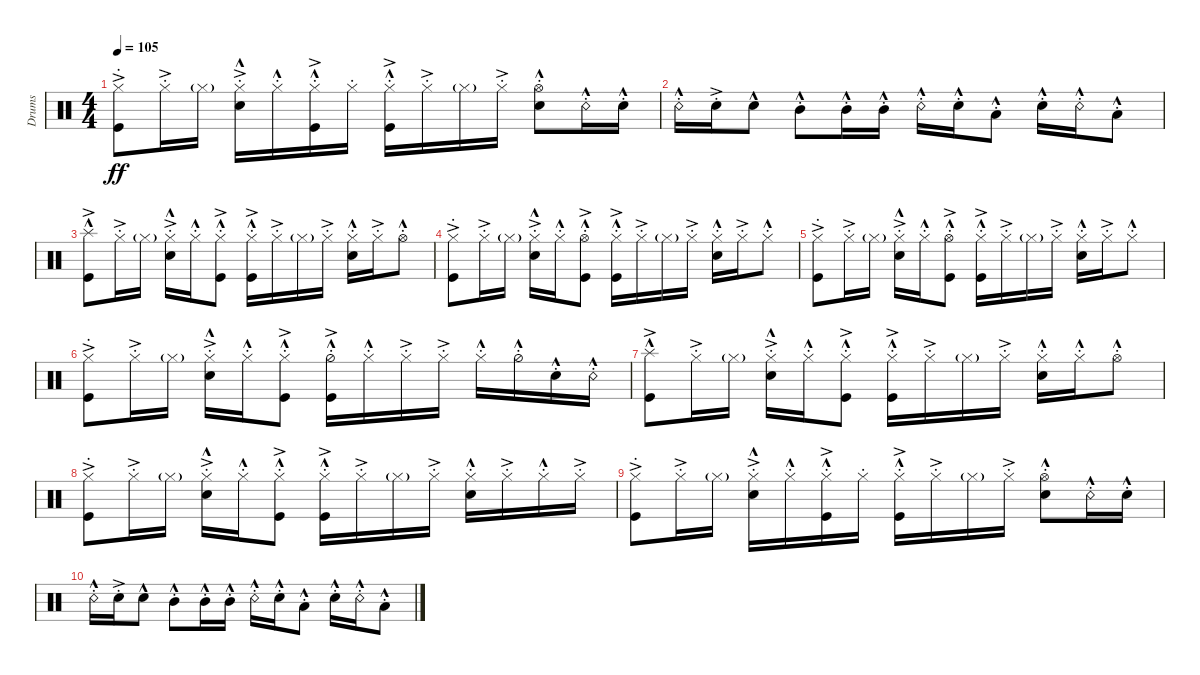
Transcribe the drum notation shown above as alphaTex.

\defaultSystemsLayout 4
\otherSystemsTrackNameOrientation horizontal
\chordDiagramsInScore
\track ("Drumkit" "Drums") {instrument percussion}
\staff {score}
\articulation defaults
\ts (4 4)
\tempo 105
\clef neutral
\scale
0.5
\ks c
("Kick (hit)"{ac} "Hi-Hat (closed)"{ac st}).8{dy ff} "Hi-Hat (closed)"{ac st}.16 "Hi-Hat (closed)"{g}.16 ("Hi-Hat (closed)"{ac st} "Snare (hit) 2"{hac st}).16 "Hi-Hat (closed)"{hac st}.16 ("Hi-Hat (closed)"{hac st} "Kick (hit)"{ac st}).16 "Hi-Hat (closed)"{st}.16 ("Hi-Hat (closed)"{hac st} "Kick (hit)"{ac st}).16 "Hi-Hat (closed)"{ac st}.16 "Hi-Hat (closed)"{g}.16 "Hi-Hat (closed)"{ac st}.16 ("Hi-Hat (open)"{hac st} "Snare (hit) 2"{hac st}).8 "Snare (rim shot)"{hac st}.16 "Snare (hit) 2"{hac st}.16 |
\scale
0.5 "Snare (rim shot)"{hac st}.16 "Snare (hit) 2"{ac st}.16 "Snare (hit) 2"{hac}.8 "Mid Tom (hit)"{hac st}.8 "Mid Tom (hit)"{hac st}.16 "Mid Tom (hit)"{hac st}.16 "Snare (rim shot)"{hac st}.16 "Snare (hit) 2"{hac st}.16 "Low Tom (hit)"{hac st}.8 "Snare (hit) 2"{hac st}.16 "Snare (rim shot)"{hac st}.16 "Low Tom (hit)"{hac st}.8 |
\scale
0.5 ("Splash (hit)"{hac} "Kick (hit)"{ac}).8 "Hi-Hat (closed)"{ac st}.16 "Hi-Hat (closed)"{g}.16 ("Hi-Hat (closed)"{ac st} "Snare (hit) 2"{hac st}).16 "Hi-Hat (closed)"{hac st}.16 ("Hi-Hat (closed)"{hac st} "Kick (hit)"{ac st}).8 ("Hi-Hat (closed)"{hac st} "Kick (hit)"{ac st}).16 "Hi-Hat (closed)"{ac st}.16 "Hi-Hat (closed)"{g}.16 "Hi-Hat (closed)"{ac st}.16 ("Hi-Hat (closed)"{hac st} "Snare (hit) 2"{hac st}).16 "Hi-Hat (closed)"{ac st}.16 "Hi-Hat (open)"{hac st}.8 |
\scale
0.5 ("Kick (hit)"{ac} "Hi-Hat (closed)"{ac st}).8 "Hi-Hat (closed)"{ac st}.16 "Hi-Hat (closed)"{g}.16 ("Hi-Hat (closed)"{ac st} "Snare (hit) 2"{hac st}).16 "Hi-Hat (closed)"{hac st}.16 ("Hi-Hat (open)"{hac st} "Kick (hit)"{ac st}).8 ("Hi-Hat (closed)"{hac st} "Kick (hit)"{ac st}).16 "Hi-Hat (closed)"{ac st}.16 "Hi-Hat (closed)"{g}.16 "Hi-Hat (closed)"{ac st}.16 ("Hi-Hat (closed)"{hac st} "Snare (hit) 2"{hac st}).16 "Hi-Hat (closed)"{ac st}.16 "Hi-Hat (closed)"{hac st}.8 |
\scale
0.5 ("Kick (hit)"{ac} "Hi-Hat (closed)"{ac st}).8 "Hi-Hat (closed)"{ac st}.16 "Hi-Hat (closed)"{g}.16 ("Hi-Hat (closed)"{ac st} "Snare (hit) 2"{hac st}).16 "Hi-Hat (closed)"{hac st}.16 ("Hi-Hat (open)"{hac st} "Kick (hit)"{ac st}).8 ("Hi-Hat (closed)"{hac st} "Kick (hit)"{ac st}).16 "Hi-Hat (closed)"{ac st}.16 "Hi-Hat (closed)"{g}.16 "Hi-Hat (closed)"{ac st}.16 ("Hi-Hat (closed)"{hac st} "Snare (hit) 2"{hac st}).16 "Hi-Hat (closed)"{ac st}.16 "Hi-Hat (closed)"{hac st}.8 |
\scale
0.5 ("Kick (hit)"{ac} "Hi-Hat (closed)"{ac st}).8 "Hi-Hat (closed)"{ac st}.16 "Hi-Hat (closed)"{g}.16 ("Hi-Hat (closed)"{ac st} "Snare (hit) 2"{hac st}).16 "Hi-Hat (closed)"{hac st}.16 ("Hi-Hat (closed)"{hac st} "Kick (hit)"{ac st}).8 ("Hi-Hat (half)"{hac st} "Kick (hit)"{ac st}).16 "Hi-Hat (closed)"{hac st}.16 "Hi-Hat (closed)"{ac st}.16 "Hi-Hat (closed)"{ac st}.16 "Hi-Hat (closed)"{hac st}.16 "Hi-Hat (half)"{hac st}.16 "Snare (hit) 2"{hac st}.16 "Snare (rim shot)"{hac st}.16 |
\scale
0.5 ("Splash (hit)"{hac} "Kick (hit)"{ac}).8 "Hi-Hat (closed)"{ac st}.16 "Hi-Hat (closed)"{g}.16 ("Hi-Hat (closed)"{ac st} "Snare (hit) 2"{hac st}).16 "Hi-Hat (closed)"{hac st}.16 ("Hi-Hat (closed)"{hac st} "Kick (hit)"{ac st}).8 ("Hi-Hat (closed)"{hac st} "Kick (hit)"{ac st}).16 "Hi-Hat (closed)"{ac st}.16 "Hi-Hat (closed)"{g}.16 "Hi-Hat (closed)"{ac st}.16 ("Hi-Hat (closed)"{hac st} "Snare (hit) 2"{hac st}).16 "Hi-Hat (closed)"{hac st}.16 "Hi-Hat (open)"{hac st}.8 |
\scale
0.5 ("Kick (hit)"{ac} "Hi-Hat (closed)"{ac st}).8 "Hi-Hat (closed)"{ac st}.16 "Hi-Hat (closed)"{g}.16 ("Hi-Hat (closed)"{ac st} "Snare (hit) 2"{hac st}).16 "Hi-Hat (closed)"{hac st}.16 ("Hi-Hat (closed)"{hac st} "Kick (hit)"{ac st}).8 ("Hi-Hat (closed)"{hac st} "Kick (hit)"{ac st}).16 "Hi-Hat (closed)"{ac st}.16 "Hi-Hat (closed)"{g}.16 "Hi-Hat (closed)"{ac st}.16 ("Hi-Hat (closed)"{hac st} "Snare (hit) 2"{hac st}).16 "Hi-Hat (closed)"{ac st}.16 "Hi-Hat (closed)"{hac st}.16 "Hi-Hat (closed)"{ac st}.16 |
("Kick (hit)"{ac} "Hi-Hat (closed)"{ac st}).8 "Hi-Hat (closed)"{ac st}.16 "Hi-Hat (closed)"{g}.16 ("Hi-Hat (closed)"{ac st} "Snare (hit) 2"{hac st}).16 "Hi-Hat (closed)"{hac st}.16 ("Hi-Hat (closed)"{hac st} "Kick (hit)"{ac st}).16 "Hi-Hat (closed)"{st}.16 ("Hi-Hat (closed)"{hac st} "Kick (hit)"{ac st}).16 "Hi-Hat (closed)"{ac st}.16 "Hi-Hat (closed)"{g}.16 "Hi-Hat (closed)"{ac st}.16 ("Hi-Hat (open)"{hac st} "Snare (hit) 2"{hac st}).8 "Snare (rim shot)"{hac st}.16 "Snare (hit) 2"{hac st}.16 |
"Snare (rim shot)"{hac st}.16 "Snare (hit) 2"{ac st}.16 "Snare (hit) 2"{hac}.8 "Mid Tom (hit)"{hac st}.8 "Mid Tom (hit)"{hac st}.16 "Mid Tom (hit)"{hac st}.16 "Snare (rim shot)"{hac st}.16 "Snare (hit) 2"{hac st}.16 "Low Tom (hit)"{hac st}.8 "Snare (hit) 2"{hac st}.16 "Snare (rim shot)"{hac st}.16 "Low Tom (hit)"{hac st}.8
